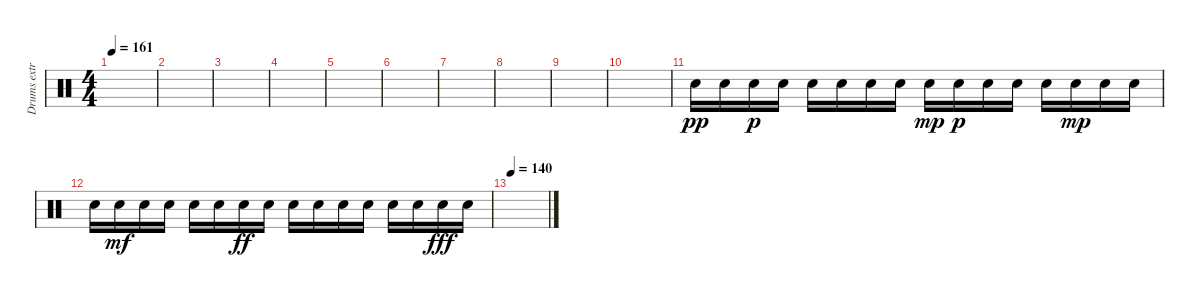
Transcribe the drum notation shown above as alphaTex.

\track ("Drums extra" "Drums extr") {instrument percussion}
\staff {score}
\articulation defaults
\ts (4 4)
\tempo 161
\clef neutral
\ks c
|
|
|
|
|
|
|
|
|
|
"Electric Snare (hit)".16{dy pp} "Electric Snare (hit)".16 "Electric Snare (hit)".16{dy p} "Electric Snare (hit)".16 "Electric Snare (hit)".16 "Electric Snare (hit)".16 "Electric Snare (hit)".16 "Electric Snare (hit)".16 "Electric Snare (hit)".16{dy mp} "Electric Snare (hit)".16{dy p} "Electric Snare (hit)".16 "Electric Snare (hit)".16 "Electric Snare (hit)".16 "Electric Snare (hit)".16{dy mp} "Electric Snare (hit)".16 "Electric Snare (hit)".16 |
"Electric Snare (hit)".16 "Electric Snare (hit)".16{dy mf} "Electric Snare (hit)".16 "Electric Snare (hit)".16 "Electric Snare (hit)".16 "Electric Snare (hit)".16 "Electric Snare (hit)".16{dy ff} "Electric Snare (hit)".16 "Electric Snare (hit)".16 "Electric Snare (hit)".16 "Electric Snare (hit)".16 "Electric Snare (hit)".16 "Electric Snare (hit)".16 "Electric Snare (hit)".16 "Electric Snare (hit)".16{dy fff} "Electric Snare (hit)".16 |
\tempo 140
